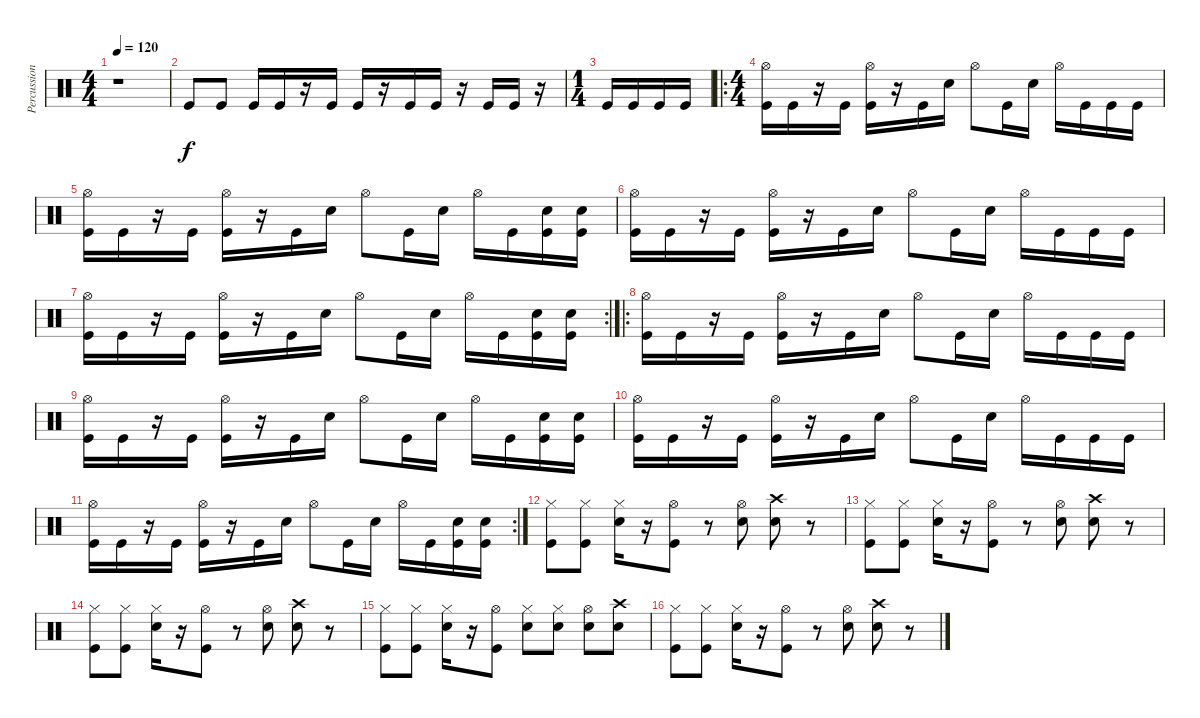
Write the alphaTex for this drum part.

\track ("Percussion" "Percussion") {instrument percussion}
\staff {score}
\articulation defaults
\ts (4 4)
\tempo 120
\clef neutral
\ks c
r.1{dy f} |
"Kick (hit)".8 "Kick (hit)".8 "Kick (hit)".16 "Kick (hit)".16 r.16 "Kick (hit)".16 "Kick (hit)".16 r.16 "Kick (hit)".16 "Kick (hit)".16 r.16 "Kick (hit)".16 "Kick (hit)".16 r.16 |
\ts (1 4)
"Kick (hit)".16 "Kick (hit)".16 "Kick (hit)".16 "Kick (hit)".16 |
\ro
\ts (4 4)
("Hi-Hat (open)" "Kick (hit)").16 "Kick (hit)".16 r.16 "Kick (hit)".16 ("Hi-Hat (open)" "Kick (hit)").16 r.16 "Kick (hit)".16 "Snare (hit) 2".16 "Hi-Hat (open)".8 "Kick (hit)".16 "Snare (hit) 2".16 "Hi-Hat (open)".16 "Kick (hit)".16 "Kick (hit)".16 "Kick (hit)".16 |
("Hi-Hat (open)" "Kick (hit)").16 "Kick (hit)".16 r.16 "Kick (hit)".16 ("Hi-Hat (open)" "Kick (hit)").16 r.16 "Kick (hit)".16 "Snare (hit) 2".16 "Hi-Hat (open)".8 "Kick (hit)".16 "Snare (hit) 2".16 "Hi-Hat (open)".16 "Kick (hit)".16 ("Snare (hit) 2" "Kick (hit)").16 ("Snare (hit) 2" "Kick (hit)").16 |
("Hi-Hat (open)" "Kick (hit)").16 "Kick (hit)".16 r.16 "Kick (hit)".16 ("Hi-Hat (open)" "Kick (hit)").16 r.16 "Kick (hit)".16 "Snare (hit) 2".16 "Hi-Hat (open)".8 "Kick (hit)".16 "Snare (hit) 2".16 "Hi-Hat (open)".16 "Kick (hit)".16 "Kick (hit)".16 "Kick (hit)".16 |
\rc 2
("Hi-Hat (open)" "Kick (hit)").16 "Kick (hit)".16 r.16 "Kick (hit)".16 ("Hi-Hat (open)" "Kick (hit)").16 r.16 "Kick (hit)".16 "Snare (hit) 2".16 "Hi-Hat (open)".8 "Kick (hit)".16 "Snare (hit) 2".16 "Hi-Hat (open)".16 "Kick (hit)".16 ("Snare (hit) 2" "Kick (hit)").16 ("Snare (hit) 2" "Kick (hit)").16 |
\ro
("Hi-Hat (open)" "Kick (hit)").16 "Kick (hit)".16 r.16 "Kick (hit)".16 ("Hi-Hat (open)" "Kick (hit)").16 r.16 "Kick (hit)".16 "Snare (hit) 2".16 "Hi-Hat (open)".8 "Kick (hit)".16 "Snare (hit) 2".16 "Hi-Hat (open)".16 "Kick (hit)".16 "Kick (hit)".16 "Kick (hit)".16 |
("Hi-Hat (open)" "Kick (hit)").16 "Kick (hit)".16 r.16 "Kick (hit)".16 ("Hi-Hat (open)" "Kick (hit)").16 r.16 "Kick (hit)".16 "Snare (hit) 2".16 "Hi-Hat (open)".8 "Kick (hit)".16 "Snare (hit) 2".16 "Hi-Hat (open)".16 "Kick (hit)".16 ("Snare (hit) 2" "Kick (hit)").16 ("Snare (hit) 2" "Kick (hit)").16 |
("Hi-Hat (open)" "Kick (hit)").16 "Kick (hit)".16 r.16 "Kick (hit)".16 ("Hi-Hat (open)" "Kick (hit)").16 r.16 "Kick (hit)".16 "Snare (hit) 2".16 "Hi-Hat (open)".8 "Kick (hit)".16 "Snare (hit) 2".16 "Hi-Hat (open)".16 "Kick (hit)".16 "Kick (hit)".16 "Kick (hit)".16 |
\rc 2
("Hi-Hat (open)" "Kick (hit)").16 "Kick (hit)".16 r.16 "Kick (hit)".16 ("Hi-Hat (open)" "Kick (hit)").16 r.16 "Kick (hit)".16 "Snare (hit) 2".16 "Hi-Hat (open)".8 "Kick (hit)".16 "Snare (hit) 2".16 "Hi-Hat (open)".16 "Kick (hit)".16 ("Snare (hit) 2" "Kick (hit)").16 ("Snare (hit) 2" "Kick (hit)").16 |
("Hi-Hat (closed)" "Kick (hit)").8 ("Hi-Hat (closed)" "Kick (hit)").8 ("Hi-Hat (closed)" "Snare (hit) 2").16 r.16 ("Hi-Hat (open)" "Kick (hit)").8 r.8 ("Hi-Hat (open)" "Snare (hit) 2").8 ("Crash high (hit)" "Snare (hit) 2").8 r.8 |
("Hi-Hat (closed)" "Kick (hit)").8 ("Hi-Hat (closed)" "Kick (hit)").8 ("Hi-Hat (closed)" "Snare (hit) 2").16 r.16 ("Hi-Hat (open)" "Kick (hit)").8 r.8 ("Hi-Hat (open)" "Snare (hit) 2").8 ("Crash high (hit)" "Snare (hit) 2").8 r.8 |
("Hi-Hat (closed)" "Kick (hit)").8 ("Hi-Hat (closed)" "Kick (hit)").8 ("Hi-Hat (closed)" "Snare (hit) 2").16 r.16 ("Hi-Hat (open)" "Kick (hit)").8 r.8 ("Hi-Hat (open)" "Snare (hit) 2").8 ("Crash high (hit)" "Snare (hit) 2").8 r.8 |
("Hi-Hat (closed)" "Kick (hit)").8 ("Hi-Hat (closed)" "Kick (hit)").8 ("Hi-Hat (closed)" "Snare (hit) 2").16 r.16 ("Hi-Hat (open)" "Kick (hit)").8 ("Hi-Hat (closed)" "Electric Snare (hit)").8 ("Hi-Hat (closed)" "Electric Snare (hit)").8 ("Hi-Hat (open)" "Snare (hit) 2").8 ("Crash high (hit)" "Snare (hit) 2").8 |
("Hi-Hat (closed)" "Kick (hit)").8 ("Hi-Hat (closed)" "Kick (hit)").8 ("Hi-Hat (closed)" "Snare (hit) 2").16 r.16 ("Hi-Hat (open)" "Kick (hit)").8 r.8 ("Hi-Hat (open)" "Snare (hit) 2").8 ("Crash high (hit)" "Snare (hit) 2").8 r.8
